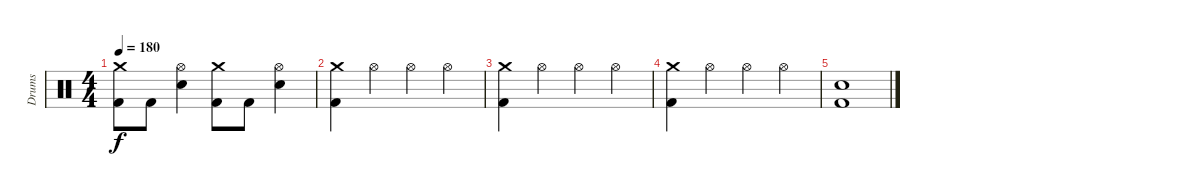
\track ("Drums" "Drums") {instrument percussion}
\staff {score}
\articulation defaults
\ts (4 4)
\tempo 180
\clef neutral
\ks c
("Kick (hit) 2" "Crash medium (hit)").8{dy f} "Kick (hit) 2".8 ("Electric Snare (hit)" "Hi-Hat (open)").4 ("Kick (hit) 2" "Crash medium (hit)").8 "Kick (hit) 2".8 ("Electric Snare (hit)" "Hi-Hat (open)").4 |
("Kick (hit) 2" "Crash medium (hit)").4 "Hi-Hat (open)".4 "Hi-Hat (open)".4 "Hi-Hat (open)".4 |
("Kick (hit) 2" "Crash medium (hit)").4 "Hi-Hat (open)".4 "Hi-Hat (open)".4 "Hi-Hat (open)".4 |
("Kick (hit) 2" "Crash medium (hit)").4 "Hi-Hat (open)".4 "Hi-Hat (open)".4 "Hi-Hat (open)".4 |
("Kick (hit) 2" "Electric Snare (hit)").1
